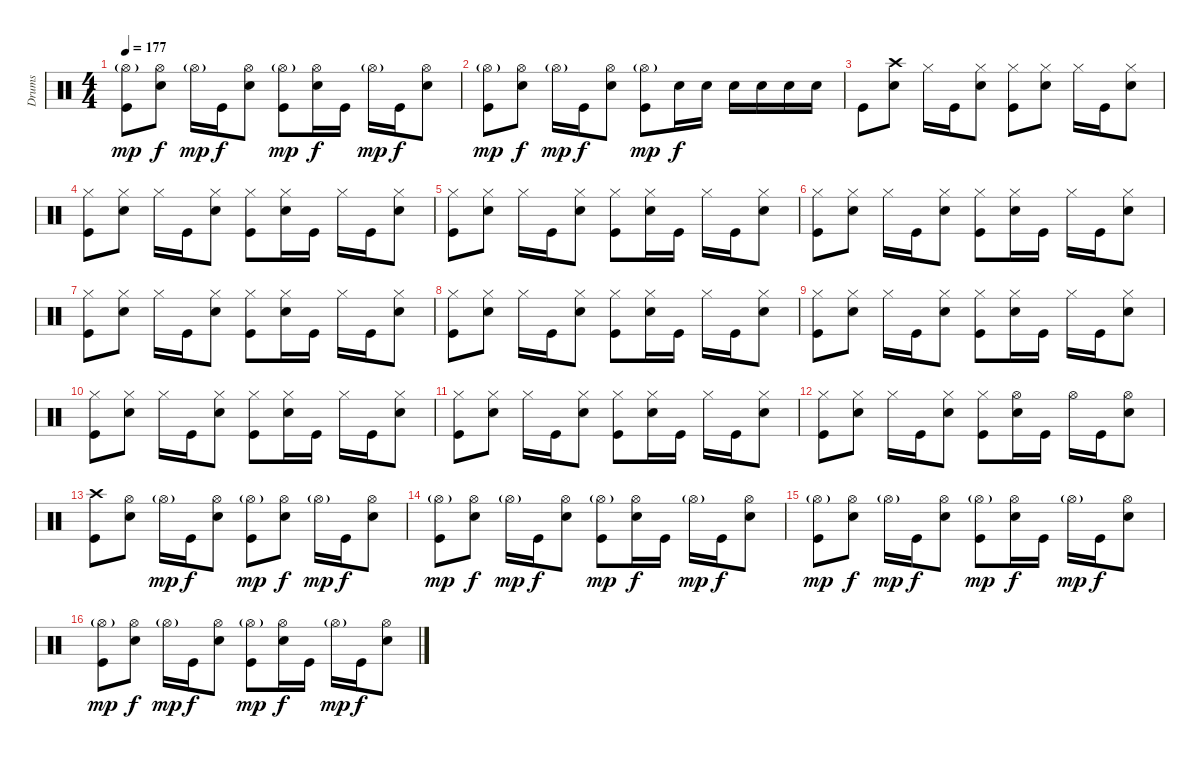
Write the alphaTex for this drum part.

\track ("Drums" "Drums") {instrument percussion}
\staff {score}
\articulation defaults
\ts (4 4)
\tempo 177
\clef neutral
\ks c
("Hi-Hat (open)"{g} "Kick (hit)").8{dy mp} ("Hi-Hat (open)" "Electric Snare (hit)").8{dy f} "Hi-Hat (open)"{g}.16{dy mp} "Kick (hit)".16{dy f} ("Hi-Hat (open)" "Electric Snare (hit)").8 ("Hi-Hat (open)"{g} "Kick (hit)").8{dy mp} ("Hi-Hat (open)" "Electric Snare (hit)").16{dy f} "Kick (hit)".16 "Hi-Hat (open)"{g}.16{dy mp} "Kick (hit)".16{dy f} ("Hi-Hat (open)" "Electric Snare (hit)").8 |
("Hi-Hat (open)"{g} "Kick (hit)").8{dy mp} ("Hi-Hat (open)" "Electric Snare (hit)").8{dy f} "Hi-Hat (open)"{g}.16{dy mp} "Kick (hit)".16{dy f} ("Hi-Hat (open)" "Electric Snare (hit)").8 ("Hi-Hat (open)"{g} "Kick (hit)").8{dy mp} "Electric Snare (hit)".16{dy f} "Electric Snare (hit)".16 "Electric Snare (hit)".16 "Electric Snare (hit)".16 "Electric Snare (hit)".16 "Electric Snare (hit)".16 |
"Kick (hit)".8 ("Crash high (hit)" "Electric Snare (hit)").8 "Hi-Hat (closed)".16 "Kick (hit)".16 ("Hi-Hat (closed)" "Electric Snare (hit)").8 ("Hi-Hat (closed)" "Kick (hit)").8 ("Hi-Hat (closed)" "Electric Snare (hit)").8 "Hi-Hat (closed)".16 "Kick (hit)".16 ("Hi-Hat (closed)" "Electric Snare (hit)").8 |
("Hi-Hat (closed)" "Kick (hit)").8 ("Hi-Hat (closed)" "Electric Snare (hit)").8 "Hi-Hat (closed)".16 "Kick (hit)".16 ("Hi-Hat (closed)" "Electric Snare (hit)").8 ("Hi-Hat (closed)" "Kick (hit)").8 ("Hi-Hat (closed)" "Electric Snare (hit)").16 "Kick (hit)".16 "Hi-Hat (closed)".16 "Kick (hit)".16 ("Hi-Hat (closed)" "Electric Snare (hit)").8 |
("Hi-Hat (closed)" "Kick (hit)").8 ("Hi-Hat (closed)" "Electric Snare (hit)").8 "Hi-Hat (closed)".16 "Kick (hit)".16 ("Hi-Hat (closed)" "Electric Snare (hit)").8 ("Hi-Hat (closed)" "Kick (hit)").8 ("Hi-Hat (closed)" "Electric Snare (hit)").16 "Kick (hit)".16 "Hi-Hat (closed)".16 "Kick (hit)".16 ("Hi-Hat (closed)" "Electric Snare (hit)").8 |
("Hi-Hat (closed)" "Kick (hit)").8 ("Hi-Hat (closed)" "Electric Snare (hit)").8 "Hi-Hat (closed)".16 "Kick (hit)".16 ("Hi-Hat (closed)" "Electric Snare (hit)").8 ("Hi-Hat (closed)" "Kick (hit)").8 ("Hi-Hat (closed)" "Electric Snare (hit)").16 "Kick (hit)".16 "Hi-Hat (closed)".16 "Kick (hit)".16 ("Hi-Hat (closed)" "Electric Snare (hit)").8 |
("Hi-Hat (closed)" "Kick (hit)").8 ("Hi-Hat (closed)" "Electric Snare (hit)").8 "Hi-Hat (closed)".16 "Kick (hit)".16 ("Hi-Hat (closed)" "Electric Snare (hit)").8 ("Hi-Hat (closed)" "Kick (hit)").8 ("Hi-Hat (closed)" "Electric Snare (hit)").16 "Kick (hit)".16 "Hi-Hat (closed)".16 "Kick (hit)".16 ("Hi-Hat (closed)" "Electric Snare (hit)").8 |
("Hi-Hat (closed)" "Kick (hit)").8 ("Hi-Hat (closed)" "Electric Snare (hit)").8 "Hi-Hat (closed)".16 "Kick (hit)".16 ("Hi-Hat (closed)" "Electric Snare (hit)").8 ("Hi-Hat (closed)" "Kick (hit)").8 ("Hi-Hat (closed)" "Electric Snare (hit)").16 "Kick (hit)".16 "Hi-Hat (closed)".16 "Kick (hit)".16 ("Hi-Hat (closed)" "Electric Snare (hit)").8 |
("Hi-Hat (closed)" "Kick (hit)").8 ("Hi-Hat (closed)" "Electric Snare (hit)").8 "Hi-Hat (closed)".16 "Kick (hit)".16 ("Hi-Hat (closed)" "Electric Snare (hit)").8 ("Hi-Hat (closed)" "Kick (hit)").8 ("Hi-Hat (closed)" "Electric Snare (hit)").16 "Kick (hit)".16 "Hi-Hat (closed)".16 "Kick (hit)".16 ("Hi-Hat (closed)" "Electric Snare (hit)").8 |
("Hi-Hat (closed)" "Kick (hit)").8 ("Hi-Hat (closed)" "Electric Snare (hit)").8 "Hi-Hat (closed)".16 "Kick (hit)".16 ("Hi-Hat (closed)" "Electric Snare (hit)").8 ("Hi-Hat (closed)" "Kick (hit)").8 ("Hi-Hat (closed)" "Electric Snare (hit)").16 "Kick (hit)".16 "Hi-Hat (closed)".16 "Kick (hit)".16 ("Hi-Hat (closed)" "Electric Snare (hit)").8 |
("Hi-Hat (closed)" "Kick (hit)").8 ("Hi-Hat (closed)" "Electric Snare (hit)").8 "Hi-Hat (closed)".16 "Kick (hit)".16 ("Hi-Hat (closed)" "Electric Snare (hit)").8 ("Hi-Hat (closed)" "Kick (hit)").8 ("Hi-Hat (closed)" "Electric Snare (hit)").16 "Kick (hit)".16 "Hi-Hat (closed)".16 "Kick (hit)".16 ("Hi-Hat (closed)" "Electric Snare (hit)").8 |
("Hi-Hat (closed)" "Kick (hit)").8 ("Hi-Hat (closed)" "Electric Snare (hit)").8 "Hi-Hat (closed)".16 "Kick (hit)".16 ("Hi-Hat (closed)" "Electric Snare (hit)").8 ("Hi-Hat (closed)" "Kick (hit)").8 ("Hi-Hat (open)" "Electric Snare (hit)").16 "Kick (hit)".16 "Hi-Hat (open)".16 "Kick (hit)".16 ("Hi-Hat (open)" "Electric Snare (hit)").8 |
("Crash high (hit)" "Kick (hit)").8 ("Hi-Hat (open)" "Electric Snare (hit)").8 "Hi-Hat (open)"{g}.16{dy mp} "Kick (hit)".16{dy f} ("Hi-Hat (open)" "Electric Snare (hit)").8 ("Hi-Hat (open)"{g} "Kick (hit)").8{dy mp} ("Hi-Hat (open)" "Electric Snare (hit)").8{dy f} "Hi-Hat (open)"{g}.16{dy mp} "Kick (hit)".16{dy f} ("Hi-Hat (open)" "Electric Snare (hit)").8 |
("Hi-Hat (open)"{g} "Kick (hit)").8{dy mp} ("Hi-Hat (open)" "Electric Snare (hit)").8{dy f} "Hi-Hat (open)"{g}.16{dy mp} "Kick (hit)".16{dy f} ("Hi-Hat (open)" "Electric Snare (hit)").8 ("Hi-Hat (open)"{g} "Kick (hit)").8{dy mp} ("Hi-Hat (open)" "Electric Snare (hit)").16{dy f} "Kick (hit)".16 "Hi-Hat (open)"{g}.16{dy mp} "Kick (hit)".16{dy f} ("Hi-Hat (open)" "Electric Snare (hit)").8 |
("Hi-Hat (open)"{g} "Kick (hit)").8{dy mp} ("Hi-Hat (open)" "Electric Snare (hit)").8{dy f} "Hi-Hat (open)"{g}.16{dy mp} "Kick (hit)".16{dy f} ("Hi-Hat (open)" "Electric Snare (hit)").8 ("Hi-Hat (open)"{g} "Kick (hit)").8{dy mp} ("Hi-Hat (open)" "Electric Snare (hit)").16{dy f} "Kick (hit)".16 "Hi-Hat (open)"{g}.16{dy mp} "Kick (hit)".16{dy f} ("Hi-Hat (open)" "Electric Snare (hit)").8 |
("Hi-Hat (open)"{g} "Kick (hit)").8{dy mp} ("Hi-Hat (open)" "Electric Snare (hit)").8{dy f} "Hi-Hat (open)"{g}.16{dy mp} "Kick (hit)".16{dy f} ("Hi-Hat (open)" "Electric Snare (hit)").8 ("Hi-Hat (open)"{g} "Kick (hit)").8{dy mp} ("Hi-Hat (open)" "Electric Snare (hit)").16{dy f} "Kick (hit)".16 "Hi-Hat (open)"{g}.16{dy mp} "Kick (hit)".16{dy f} ("Hi-Hat (open)" "Electric Snare (hit)").8
